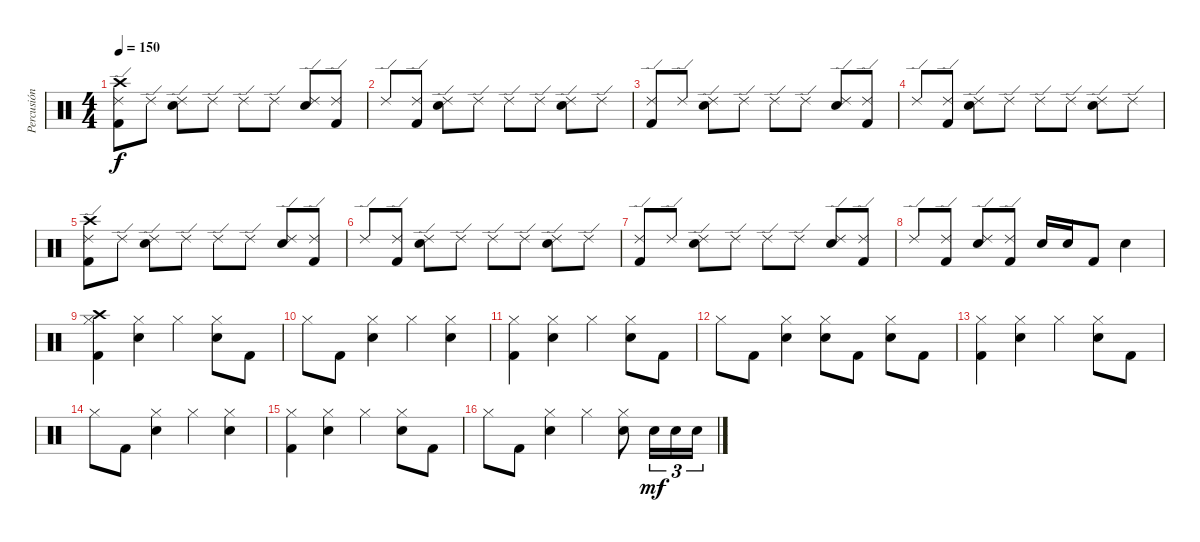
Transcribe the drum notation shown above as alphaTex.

\track ("Percusión" "Percusión") {instrument percussion}
\staff {score}
\articulation defaults
\ts (4 4)
\tempo 150
\clef neutral
\ks c
("Crash high (hit)" "Ride (edge) 2" "Kick (hit) 2").8{dy f} "Ride (edge) 2".8 ("Ride (edge) 2" "Snare (hit) 2").8 "Ride (edge) 2".8 "Ride (edge) 2".8 "Ride (edge) 2".8 ("Ride (edge) 2" "Snare (hit) 2").8 ("Ride (edge) 2" "Kick (hit) 2").8 |
"Ride (edge) 2".8 ("Ride (edge) 2" "Kick (hit) 2").8 ("Ride (edge) 2" "Snare (hit) 2").8 "Ride (edge) 2".8 "Ride (edge) 2".8 "Ride (edge) 2".8 ("Ride (edge) 2" "Snare (hit) 2").8 "Ride (edge) 2".8 |
("Ride (edge) 2" "Kick (hit) 2").8 "Ride (edge) 2".8 ("Ride (edge) 2" "Snare (hit) 2").8 "Ride (edge) 2".8 "Ride (edge) 2".8 "Ride (edge) 2".8 ("Ride (edge) 2" "Snare (hit) 2").8 ("Ride (edge) 2" "Kick (hit) 2").8 |
"Ride (edge) 2".8 ("Ride (edge) 2" "Kick (hit) 2").8 ("Ride (edge) 2" "Snare (hit) 2").8 "Ride (edge) 2".8 "Ride (edge) 2".8 "Ride (edge) 2".8 ("Ride (edge) 2" "Snare (hit) 2").8 "Ride (edge) 2".8 |
("Crash high (hit)" "Ride (edge) 2" "Kick (hit) 2").8 "Ride (edge) 2".8 ("Ride (edge) 2" "Snare (hit) 2").8 "Ride (edge) 2".8 "Ride (edge) 2".8 "Ride (edge) 2".8 ("Ride (edge) 2" "Snare (hit) 2").8 ("Ride (edge) 2" "Kick (hit) 2").8 |
"Ride (edge) 2".8 ("Ride (edge) 2" "Kick (hit) 2").8 ("Ride (edge) 2" "Snare (hit) 2").8 "Ride (edge) 2".8 "Ride (edge) 2".8 "Ride (edge) 2".8 ("Ride (edge) 2" "Snare (hit) 2").8 "Ride (edge) 2".8 |
("Ride (edge) 2" "Kick (hit) 2").8 "Ride (edge) 2".8 ("Ride (edge) 2" "Snare (hit) 2").8 "Ride (edge) 2".8 "Ride (edge) 2".8 "Ride (edge) 2".8 ("Ride (edge) 2" "Snare (hit) 2").8 ("Ride (edge) 2" "Kick (hit) 2").8 |
"Ride (edge) 2".8 ("Ride (edge) 2" "Kick (hit) 2").8 ("Ride (edge) 2" "Snare (hit) 2").8 ("Ride (edge) 2" "Kick (hit) 2").8 "Snare (hit) 2".16 "Snare (hit) 2".16 "Kick (hit) 2".8 "Snare (hit) 2".4 |
("Crash high (hit)" "Hi-Hat (closed)" "Kick (hit) 2").4 ("Hi-Hat (closed)" "Snare (hit) 2").4 "Hi-Hat (closed)".4 ("Hi-Hat (closed)" "Snare (hit) 2").8 "Kick (hit) 2".8 |
"Hi-Hat (closed)".8 "Kick (hit) 2".8 ("Hi-Hat (closed)" "Snare (hit) 2").4 "Hi-Hat (closed)".4 ("Hi-Hat (closed)" "Snare (hit) 2").4 |
("Hi-Hat (closed)" "Kick (hit) 2").4 ("Hi-Hat (closed)" "Snare (hit) 2").4 "Hi-Hat (closed)".4 ("Hi-Hat (closed)" "Snare (hit) 2").8 "Kick (hit) 2".8 |
"Hi-Hat (closed)".8 "Kick (hit) 2".8 ("Hi-Hat (closed)" "Snare (hit) 2").4 ("Hi-Hat (closed)" "Snare (hit) 2").8 "Kick (hit) 2".8 ("Hi-Hat (closed)" "Snare (hit) 2").8 "Kick (hit) 2".8 |
("Hi-Hat (closed)" "Kick (hit) 2").4 ("Hi-Hat (closed)" "Snare (hit) 2").4 "Hi-Hat (closed)".4 ("Hi-Hat (closed)" "Snare (hit) 2").8 "Kick (hit) 2".8 |
"Hi-Hat (closed)".8 "Kick (hit) 2".8 ("Hi-Hat (closed)" "Snare (hit) 2").4 "Hi-Hat (closed)".4 ("Hi-Hat (closed)" "Snare (hit) 2").4 |
("Hi-Hat (closed)" "Kick (hit) 2").4 ("Hi-Hat (closed)" "Snare (hit) 2").4 "Hi-Hat (closed)".4 ("Hi-Hat (closed)" "Snare (hit) 2").8 "Kick (hit) 2".8 |
"Hi-Hat (closed)".8 "Kick (hit) 2".8 ("Hi-Hat (closed)" "Snare (hit) 2").4 "Hi-Hat (closed)".4 ("Hi-Hat (closed)" "Snare (hit) 2").8 "Snare (hit) 2".16{tu (3 2) dy mf} "Snare (hit) 2".16{tu (3 2)} "Snare (hit) 2".16{tu (3 2)}
